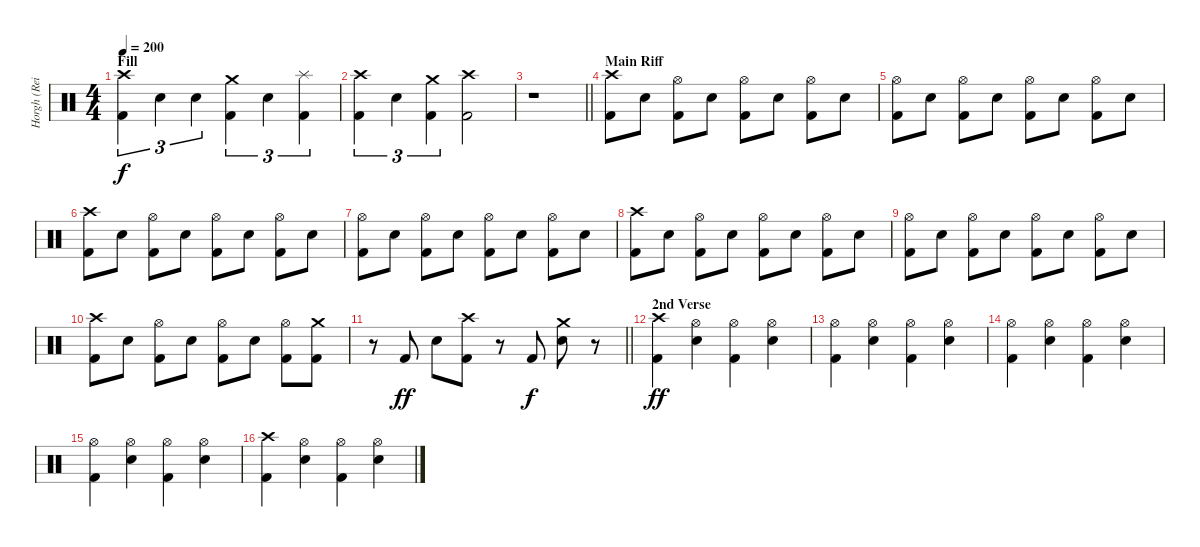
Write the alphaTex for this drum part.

\track ("Horgh (Reidar Horghagen)" "Horgh (Rei") {instrument percussion}
\staff {score}
\articulation defaults
\ts (4 4)
\section ("" "Fill")
\tempo 200
\clef neutral
\ks c
("Crash high (hit)" "Kick (hit) 2").4{tu (3 2) dy f} "Snare (hit) 2".4{tu (3 2)} "Snare (hit) 2".4{tu (3 2)} ("Crash medium (hit)" "Kick (hit) 2").4{tu (3 2)} "Snare (hit) 2".4{tu (3 2)} ("Splash (hit)" "Kick (hit) 2").4{tu (3 2)} |
("Crash high (hit)" "Kick (hit) 2").4{tu (3 2)} "Snare (hit) 2".4{tu (3 2)} ("Crash medium (hit)" "Kick (hit) 2").4{tu (3 2)} ("Crash high (hit)" "Kick (hit) 2").2 |
\barLineRight lightlight
r.1 |
\section ("" "Main Riff")
("Crash high (hit)" "Kick (hit) 2").8 "Snare (hit) 2".8 ("Hi-Hat (open)" "Kick (hit) 2").8 "Snare (hit) 2".8 ("Hi-Hat (open)" "Kick (hit) 2").8 "Snare (hit) 2".8 ("Hi-Hat (open)" "Kick (hit) 2").8 "Snare (hit) 2".8 |
("Hi-Hat (open)" "Kick (hit) 2").8 "Snare (hit) 2".8 ("Hi-Hat (open)" "Kick (hit) 2").8 "Snare (hit) 2".8 ("Hi-Hat (open)" "Kick (hit) 2").8 "Snare (hit) 2".8 ("Hi-Hat (open)" "Kick (hit) 2").8 "Snare (hit) 2".8 |
("Crash high (hit)" "Kick (hit) 2").8 "Snare (hit) 2".8 ("Hi-Hat (open)" "Kick (hit) 2").8 "Snare (hit) 2".8 ("Hi-Hat (open)" "Kick (hit) 2").8 "Snare (hit) 2".8 ("Hi-Hat (open)" "Kick (hit) 2").8 "Snare (hit) 2".8 |
("Hi-Hat (open)" "Kick (hit) 2").8 "Snare (hit) 2".8 ("Hi-Hat (open)" "Kick (hit) 2").8 "Snare (hit) 2".8 ("Hi-Hat (open)" "Kick (hit) 2").8 "Snare (hit) 2".8 ("Hi-Hat (open)" "Kick (hit) 2").8 "Snare (hit) 2".8 |
("Crash high (hit)" "Kick (hit) 2").8 "Snare (hit) 2".8 ("Hi-Hat (open)" "Kick (hit) 2").8 "Snare (hit) 2".8 ("Hi-Hat (open)" "Kick (hit) 2").8 "Snare (hit) 2".8 ("Hi-Hat (open)" "Kick (hit) 2").8 "Snare (hit) 2".8 |
("Hi-Hat (open)" "Kick (hit) 2").8 "Snare (hit) 2".8 ("Hi-Hat (open)" "Kick (hit) 2").8 "Snare (hit) 2".8 ("Hi-Hat (open)" "Kick (hit) 2").8 "Snare (hit) 2".8 ("Hi-Hat (open)" "Kick (hit) 2").8 "Snare (hit) 2".8 |
("Crash high (hit)" "Kick (hit) 2").8 "Snare (hit) 2".8 ("Hi-Hat (open)" "Kick (hit) 2").8 "Snare (hit) 2".8 ("Hi-Hat (open)" "Kick (hit) 2").8 "Snare (hit) 2".8 ("Hi-Hat (open)" "Kick (hit) 2").8 ("Crash medium (hit)" "Kick (hit) 2").8 |
\barLineRight lightlight
r.8 "Kick (hit) 2".8{dy ff} "Snare (hit) 2".8 ("Crash high (hit)" "Kick (hit) 2").8 r.8 "Kick (hit) 2".8{dy f} ("Crash medium (hit)" "Snare (hit) 2").8 r.8 |
\section ("" "2nd Verse")
("Crash high (hit)" "Kick (hit) 2").4{dy ff} ("Hi-Hat (open)" "Snare (hit) 2").4 ("Hi-Hat (open)" "Kick (hit) 2").4 ("Hi-Hat (open)" "Snare (hit) 2").4 |
("Hi-Hat (open)" "Kick (hit) 2").4 ("Hi-Hat (open)" "Snare (hit) 2").4 ("Hi-Hat (open)" "Kick (hit) 2").4 ("Hi-Hat (open)" "Snare (hit) 2").4 |
("Hi-Hat (open)" "Kick (hit) 2").4 ("Hi-Hat (open)" "Snare (hit) 2").4 ("Hi-Hat (open)" "Kick (hit) 2").4 ("Hi-Hat (open)" "Snare (hit) 2").4 |
("Hi-Hat (open)" "Kick (hit) 2").4 ("Hi-Hat (open)" "Snare (hit) 2").4 ("Hi-Hat (open)" "Kick (hit) 2").4 ("Hi-Hat (open)" "Snare (hit) 2").4 |
("Crash high (hit)" "Kick (hit) 2").4 ("Hi-Hat (open)" "Snare (hit) 2").4 ("Hi-Hat (open)" "Kick (hit) 2").4 ("Hi-Hat (open)" "Snare (hit) 2").4
